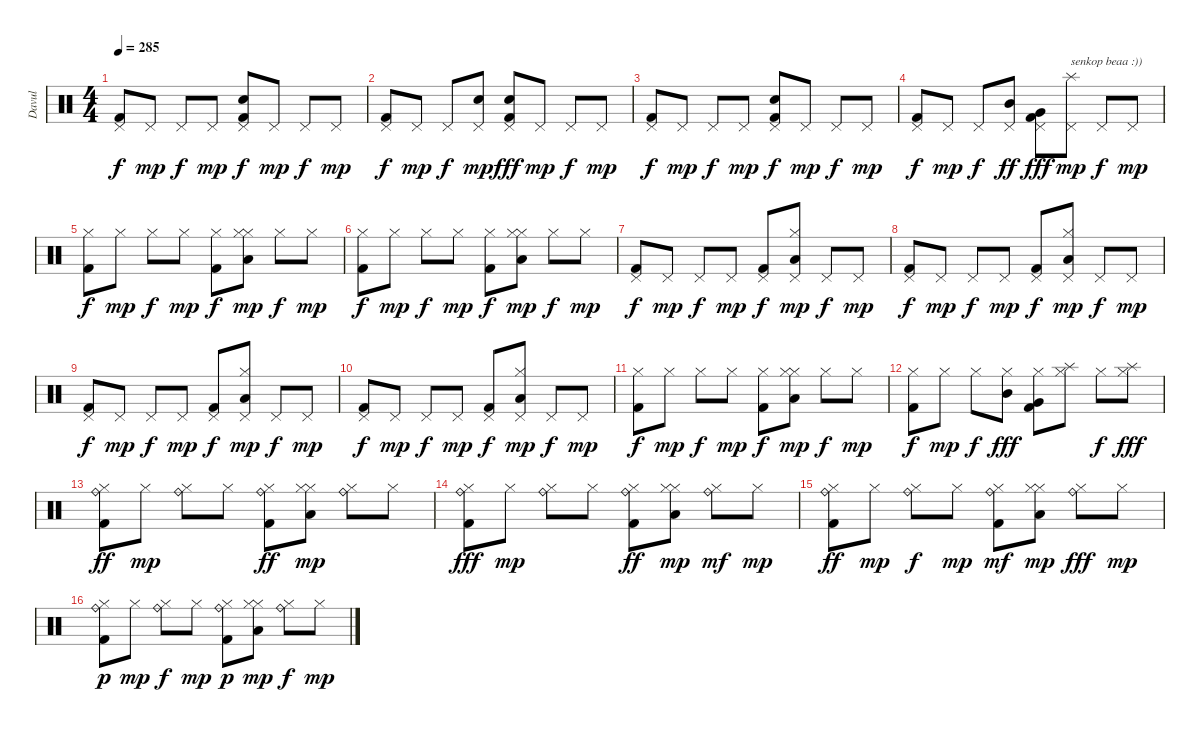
\track ("Davul" "Davul") {instrument percussion}
\staff {score}
\articulation defaults
\ts (4 4)
\tempo 285
\clef neutral
\ks c
("Pedal Hi-Hat (hit)" "Kick (hit) 2").8{dy f} "Pedal Hi-Hat (hit)".8{dy mp} "Pedal Hi-Hat (hit)".8{dy f} "Pedal Hi-Hat (hit)".8{dy mp} ("Pedal Hi-Hat (hit)" "Snare (hit) 2" "Kick (hit) 2").8{dy f} "Pedal Hi-Hat (hit)".8{dy mp} "Pedal Hi-Hat (hit)".8{dy f} "Pedal Hi-Hat (hit)".8{dy mp} |
("Pedal Hi-Hat (hit)" "Kick (hit) 2").8{dy f} "Pedal Hi-Hat (hit)".8{dy mp} "Pedal Hi-Hat (hit)".8{dy f} ("Pedal Hi-Hat (hit)" "Snare (hit) 2").8{dy mp} ("Pedal Hi-Hat (hit)" "Snare (hit) 2" "Kick (hit) 2").8{dy fff} "Pedal Hi-Hat (hit)".8{dy mp} "Pedal Hi-Hat (hit)".8{dy f} "Pedal Hi-Hat (hit)".8{dy mp} |
("Pedal Hi-Hat (hit)" "Kick (hit) 2").8{dy f} "Pedal Hi-Hat (hit)".8{dy mp} "Pedal Hi-Hat (hit)".8{dy f} "Pedal Hi-Hat (hit)".8{dy mp} ("Pedal Hi-Hat (hit)" "Snare (hit) 2" "Kick (hit) 2").8{dy f} "Pedal Hi-Hat (hit)".8{dy mp} "Pedal Hi-Hat (hit)".8{dy f} "Pedal Hi-Hat (hit)".8{dy mp} |
("Pedal Hi-Hat (hit)" "Kick (hit) 2").8{dy f} "Pedal Hi-Hat (hit)".8{dy mp} "Pedal Hi-Hat (hit)".8{dy f} ("Pedal Hi-Hat (hit)" "Mid Tom (hit)").8{dy ff} ("Pedal Hi-Hat (hit)" "Very Low Tom (hit)" "Kick (hit) 2").8{dy fff} ("Pedal Hi-Hat (hit)" "Splash (hit)").8{txt "senkop beaa :))" dy mp} "Pedal Hi-Hat (hit)".8{dy f} "Pedal Hi-Hat (hit)".8{dy mp} |
("Hi-Hat (closed)" "Kick (hit) 2").8{dy f} "Hi-Hat (closed)".8{dy mp} "Hi-Hat (closed)".8{dy f} "Hi-Hat (closed)".8{dy mp} ("Hi-Hat (closed)" "Kick (hit) 2").8{dy f} ("Hi-Hat (closed)" "Hi-Hat (closed)" "Low Floor Tom (hit)").8{dy mp} "Hi-Hat (closed)".8{dy f} "Hi-Hat (closed)".8{dy mp} |
("Hi-Hat (closed)" "Kick (hit) 2").8{dy f} "Hi-Hat (closed)".8{dy mp} "Hi-Hat (closed)".8{dy f} "Hi-Hat (closed)".8{dy mp} ("Hi-Hat (closed)" "Kick (hit) 2").8{dy f} ("Hi-Hat (closed)" "Hi-Hat (closed)" "Low Floor Tom (hit)").8{dy mp} "Hi-Hat (closed)".8{dy f} "Hi-Hat (closed)".8{dy mp} |
("Pedal Hi-Hat (hit)" "Kick (hit) 2").8{dy f} "Pedal Hi-Hat (hit)".8{dy mp} "Pedal Hi-Hat (hit)".8{dy f} "Pedal Hi-Hat (hit)".8{dy mp} ("Pedal Hi-Hat (hit)" "Kick (hit) 2").8{dy f} ("Pedal Hi-Hat (hit)" "Hi-Hat (closed)" "Low Floor Tom (hit)").8{dy mp} "Pedal Hi-Hat (hit)".8{dy f} "Pedal Hi-Hat (hit)".8{dy mp} |
("Pedal Hi-Hat (hit)" "Kick (hit) 2").8{dy f} "Pedal Hi-Hat (hit)".8{dy mp} "Pedal Hi-Hat (hit)".8{dy f} "Pedal Hi-Hat (hit)".8{dy mp} ("Pedal Hi-Hat (hit)" "Kick (hit) 2").8{dy f} ("Pedal Hi-Hat (hit)" "Hi-Hat (closed)" "Low Floor Tom (hit)").8{dy mp} "Pedal Hi-Hat (hit)".8{dy f} "Pedal Hi-Hat (hit)".8{dy mp} |
("Pedal Hi-Hat (hit)" "Kick (hit) 2").8{dy f} "Pedal Hi-Hat (hit)".8{dy mp} "Pedal Hi-Hat (hit)".8{dy f} "Pedal Hi-Hat (hit)".8{dy mp} ("Pedal Hi-Hat (hit)" "Kick (hit) 2").8{dy f} ("Pedal Hi-Hat (hit)" "Hi-Hat (closed)" "Low Floor Tom (hit)").8{dy mp} "Pedal Hi-Hat (hit)".8{dy f} "Pedal Hi-Hat (hit)".8{dy mp} |
("Pedal Hi-Hat (hit)" "Kick (hit) 2").8{dy f} "Pedal Hi-Hat (hit)".8{dy mp} "Pedal Hi-Hat (hit)".8{dy f} "Pedal Hi-Hat (hit)".8{dy mp} ("Pedal Hi-Hat (hit)" "Kick (hit) 2").8{dy f} ("Pedal Hi-Hat (hit)" "Hi-Hat (closed)" "Low Floor Tom (hit)").8{dy mp} "Pedal Hi-Hat (hit)".8{dy f} "Pedal Hi-Hat (hit)".8{dy mp} |
("Hi-Hat (closed)" "Kick (hit) 2").8{dy f} "Hi-Hat (closed)".8{dy mp} "Hi-Hat (closed)".8{dy f} "Hi-Hat (closed)".8{dy mp} ("Hi-Hat (closed)" "Kick (hit) 2").8{dy f} ("Hi-Hat (closed)" "Hi-Hat (closed)" "Low Floor Tom (hit)").8{dy mp} "Hi-Hat (closed)".8{dy f} "Hi-Hat (closed)".8{dy mp} |
("Hi-Hat (closed)" "Kick (hit) 2").8{dy f} "Hi-Hat (closed)".8{dy mp} "Hi-Hat (closed)".8{dy f} ("Hi-Hat (closed)" "Mid Tom (hit)").8{dy fff} ("Hi-Hat (closed)" "Very Low Tom (hit)" "Kick (hit) 2").8 ("Hi-Hat (closed)" "Splash (hit)").8 "Hi-Hat (closed)".8{dy f} ("Hi-Hat (closed)" "Splash (hit)").8{dy fff} |
("Hi-Hat (closed)" "Ride (bell)" "Kick (hit) 2").8{dy ff} "Hi-Hat (closed)".8{dy mp} ("Hi-Hat (closed)" "Ride (bell)").8 "Hi-Hat (closed)".8 ("Hi-Hat (closed)" "Ride (bell)" "Kick (hit) 2").8{dy ff} ("Hi-Hat (closed)" "Hi-Hat (closed)" "Low Floor Tom (hit)").8{dy mp} ("Hi-Hat (closed)" "Ride (bell)").8 "Hi-Hat (closed)".8 |
("Hi-Hat (closed)" "Ride (bell)" "Kick (hit) 2").8{dy fff} "Hi-Hat (closed)".8{dy mp} ("Hi-Hat (closed)" "Ride (bell)").8 "Hi-Hat (closed)".8 ("Hi-Hat (closed)" "Ride (bell)" "Kick (hit) 2").8{dy ff} ("Hi-Hat (closed)" "Hi-Hat (closed)" "Low Floor Tom (hit)").8{dy mp} ("Hi-Hat (closed)" "Ride (bell)").8{dy mf} "Hi-Hat (closed)".8{dy mp} |
("Hi-Hat (closed)" "Ride (bell)" "Kick (hit) 2").8{dy ff} "Hi-Hat (closed)".8{dy mp} ("Hi-Hat (closed)" "Ride (bell)").8{dy f} "Hi-Hat (closed)".8{dy mp} ("Hi-Hat (closed)" "Ride (bell)" "Kick (hit) 2").8{dy mf} ("Hi-Hat (closed)" "Hi-Hat (closed)" "Low Floor Tom (hit)").8{dy mp} ("Hi-Hat (closed)" "Ride (bell)").8{dy fff} "Hi-Hat (closed)".8{dy mp} |
("Hi-Hat (closed)" "Ride (bell)" "Kick (hit) 2").8{dy p} "Hi-Hat (closed)".8{dy mp} ("Hi-Hat (closed)" "Ride (bell)").8{dy f} "Hi-Hat (closed)".8{dy mp} ("Hi-Hat (closed)" "Ride (bell)" "Kick (hit) 2").8{dy p} ("Hi-Hat (closed)" "Hi-Hat (closed)" "Low Floor Tom (hit)").8{dy mp} ("Hi-Hat (closed)" "Ride (bell)").8{dy f} "Hi-Hat (closed)".8{dy mp}
